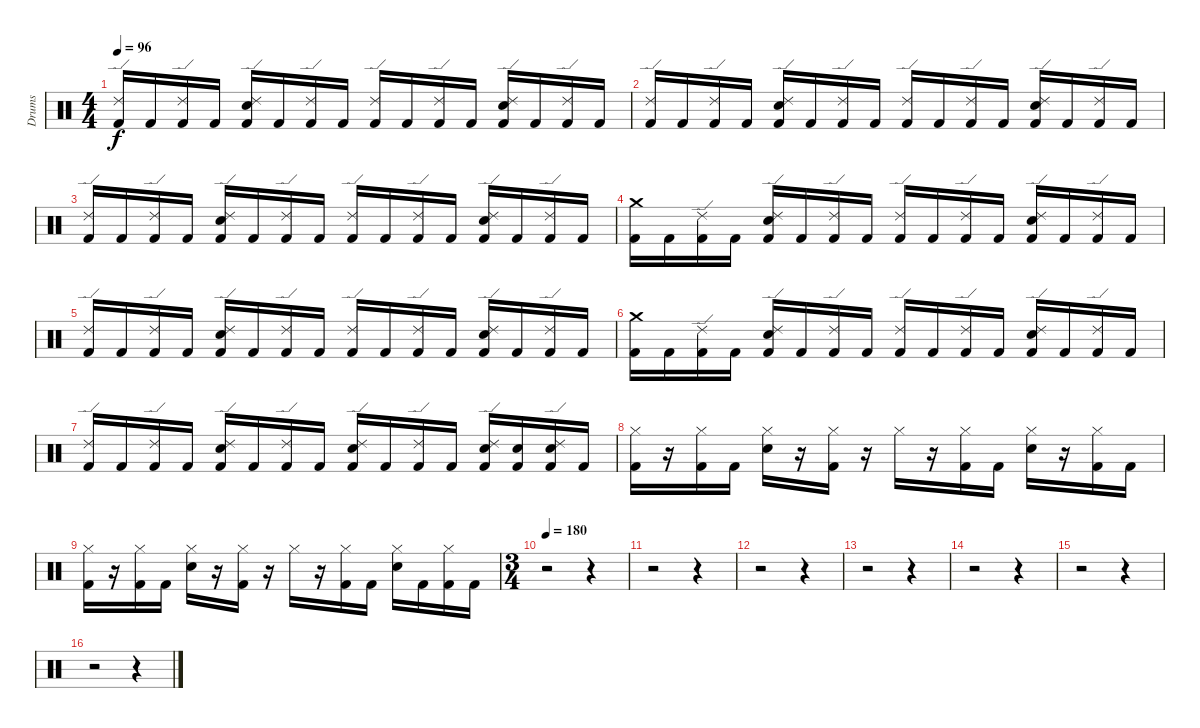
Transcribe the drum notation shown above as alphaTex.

\track ("Drums" "Drums") {instrument percussion}
\staff {score}
\articulation defaults
\ts (4 4)
\tempo 96
\clef neutral
\ks c
("Ride (edge) 2" "Kick (hit) 2").16{dy f} "Kick (hit) 2".16 ("Ride (edge) 2" "Kick (hit) 2").16 "Kick (hit) 2".16 ("Ride (edge) 2" "Electric Snare (hit)" "Kick (hit) 2").16 "Kick (hit) 2".16 ("Ride (edge) 2" "Kick (hit) 2").16 "Kick (hit) 2".16 ("Ride (edge) 2" "Kick (hit) 2").16 "Kick (hit) 2".16 ("Ride (edge) 2" "Kick (hit) 2").16 "Kick (hit) 2".16 ("Ride (edge) 2" "Electric Snare (hit)" "Kick (hit) 2").16 "Kick (hit) 2".16 ("Ride (edge) 2" "Kick (hit) 2").16 "Kick (hit) 2".16 |
("Ride (edge) 2" "Kick (hit) 2").16 "Kick (hit) 2".16 ("Ride (edge) 2" "Kick (hit) 2").16 "Kick (hit) 2".16 ("Ride (edge) 2" "Electric Snare (hit)" "Kick (hit) 2").16 "Kick (hit) 2".16 ("Ride (edge) 2" "Kick (hit) 2").16 "Kick (hit) 2".16 ("Ride (edge) 2" "Kick (hit) 2").16 "Kick (hit) 2".16 ("Ride (edge) 2" "Kick (hit) 2").16 "Kick (hit) 2".16 ("Ride (edge) 2" "Electric Snare (hit)" "Kick (hit) 2").16 "Kick (hit) 2".16 ("Ride (edge) 2" "Kick (hit) 2").16 "Kick (hit) 2".16 |
("Ride (edge) 2" "Kick (hit) 2").16 "Kick (hit) 2".16 ("Ride (edge) 2" "Kick (hit) 2").16 "Kick (hit) 2".16 ("Ride (edge) 2" "Electric Snare (hit)" "Kick (hit) 2").16 "Kick (hit) 2".16 ("Ride (edge) 2" "Kick (hit) 2").16 "Kick (hit) 2".16 ("Ride (edge) 2" "Kick (hit) 2").16 "Kick (hit) 2".16 ("Ride (edge) 2" "Kick (hit) 2").16 "Kick (hit) 2".16 ("Ride (edge) 2" "Electric Snare (hit)" "Kick (hit) 2").16 "Kick (hit) 2".16 ("Ride (edge) 2" "Kick (hit) 2").16 "Kick (hit) 2".16 |
("Crash medium (hit)" "Kick (hit) 2").16 "Kick (hit) 2".16 ("Ride (edge) 2" "Kick (hit) 2").16 "Kick (hit) 2".16 ("Ride (edge) 2" "Electric Snare (hit)" "Kick (hit) 2").16 "Kick (hit) 2".16 ("Ride (edge) 2" "Kick (hit) 2").16 "Kick (hit) 2".16 ("Ride (edge) 2" "Kick (hit) 2").16 "Kick (hit) 2".16 ("Ride (edge) 2" "Kick (hit) 2").16 "Kick (hit) 2".16 ("Ride (edge) 2" "Electric Snare (hit)" "Kick (hit) 2").16 "Kick (hit) 2".16 ("Ride (edge) 2" "Kick (hit) 2").16 "Kick (hit) 2".16 |
("Ride (edge) 2" "Kick (hit) 2").16 "Kick (hit) 2".16 ("Ride (edge) 2" "Kick (hit) 2").16 "Kick (hit) 2".16 ("Ride (edge) 2" "Electric Snare (hit)" "Kick (hit) 2").16 "Kick (hit) 2".16 ("Ride (edge) 2" "Kick (hit) 2").16 "Kick (hit) 2".16 ("Ride (edge) 2" "Kick (hit) 2").16 "Kick (hit) 2".16 ("Ride (edge) 2" "Kick (hit) 2").16 "Kick (hit) 2".16 ("Ride (edge) 2" "Electric Snare (hit)" "Kick (hit) 2").16 "Kick (hit) 2".16 ("Ride (edge) 2" "Kick (hit) 2").16 "Kick (hit) 2".16 |
("Crash medium (hit)" "Kick (hit) 2").16 "Kick (hit) 2".16 ("Ride (edge) 2" "Kick (hit) 2").16 "Kick (hit) 2".16 ("Ride (edge) 2" "Electric Snare (hit)" "Kick (hit) 2").16 "Kick (hit) 2".16 ("Ride (edge) 2" "Kick (hit) 2").16 "Kick (hit) 2".16 ("Ride (edge) 2" "Kick (hit) 2").16 "Kick (hit) 2".16 ("Ride (edge) 2" "Kick (hit) 2").16 "Kick (hit) 2".16 ("Ride (edge) 2" "Electric Snare (hit)" "Kick (hit) 2").16 "Kick (hit) 2".16 ("Ride (edge) 2" "Kick (hit) 2").16 "Kick (hit) 2".16 |
("Ride (edge) 2" "Kick (hit) 2").16 "Kick (hit) 2".16 ("Ride (edge) 2" "Kick (hit) 2").16 "Kick (hit) 2".16 ("Ride (edge) 2" "Electric Snare (hit)" "Kick (hit) 2").16 "Kick (hit) 2".16 ("Ride (edge) 2" "Kick (hit) 2").16 "Kick (hit) 2".16 ("Ride (edge) 2" "Kick (hit) 2" "Electric Snare (hit)").16 "Kick (hit) 2".16 ("Ride (edge) 2" "Kick (hit) 2").16 "Kick (hit) 2".16 ("Ride (edge) 2" "Electric Snare (hit)" "Kick (hit) 2").16 ("Kick (hit) 2" "Electric Snare (hit)").16 ("Ride (edge) 2" "Kick (hit) 2" "Electric Snare (hit)").16 "Kick (hit) 2".16 |
("Hi-Hat (closed)" "Kick (hit) 2").16 r.16 ("Hi-Hat (closed)" "Kick (hit) 2").16 "Kick (hit) 2".16 ("Hi-Hat (closed)" "Electric Snare (hit)").16 r.16 ("Hi-Hat (closed)" "Kick (hit) 2").16 r.16 "Hi-Hat (closed)".16 r.16 ("Hi-Hat (closed)" "Kick (hit) 2").16 "Kick (hit) 2".16 ("Hi-Hat (closed)" "Electric Snare (hit)").16 r.16 ("Kick (hit) 2" "Hi-Hat (closed)").16 "Kick (hit) 2".16 |
("Hi-Hat (closed)" "Kick (hit) 2").16 r.16 ("Hi-Hat (closed)" "Kick (hit) 2").16 "Kick (hit) 2".16 ("Hi-Hat (closed)" "Electric Snare (hit)").16 r.16 ("Hi-Hat (closed)" "Kick (hit) 2").16 r.16 "Hi-Hat (closed)".16 r.16 ("Hi-Hat (closed)" "Kick (hit) 2").16 "Kick (hit) 2".16 ("Hi-Hat (closed)" "Electric Snare (hit)").16 "Kick (hit) 2".16 ("Kick (hit) 2" "Hi-Hat (closed)").16 "Kick (hit) 2".16 |
\ts (3 4)
\tempo 180
r.2 r.4 |
r.2 r.4 |
r.2 r.4 |
r.2 r.4 |
r.2 r.4 |
r.2 r.4 |
r.2 r.4
